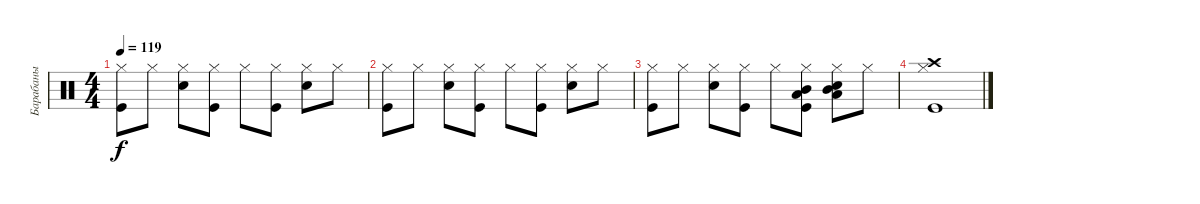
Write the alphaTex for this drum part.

\track ("Барабаны" "Барабаны") {instrument percussion}
\staff {score}
\articulation defaults
\ts (4 4)
\tempo 119
\clef neutral
\ks c
("Kick (hit)" "Hi-Hat (closed)").8{dy f} "Hi-Hat (closed)".8 ("Snare (hit) 2" "Hi-Hat (closed)").8 ("Kick (hit)" "Hi-Hat (closed)").8 "Hi-Hat (closed)".8 ("Kick (hit)" "Hi-Hat (closed)").8 ("Snare (hit) 2" "Hi-Hat (closed)").8 "Hi-Hat (closed)".8 |
("Kick (hit)" "Hi-Hat (closed)").8 "Hi-Hat (closed)".8 ("Snare (hit) 2" "Hi-Hat (closed)").8 ("Kick (hit)" "Hi-Hat (closed)").8 "Hi-Hat (closed)".8 ("Kick (hit)" "Hi-Hat (closed)").8 ("Snare (hit) 2" "Hi-Hat (closed)").8 "Hi-Hat (closed)".8 |
("Kick (hit)" "Hi-Hat (closed)").8 "Hi-Hat (closed)".8 ("Snare (hit) 2" "Hi-Hat (closed)").8 ("Kick (hit)" "Hi-Hat (closed)").8 "Hi-Hat (closed)".8 ("Kick (hit)" "Hi-Hat (closed)" "Low Floor Tom (hit)" "Mid Tom (hit)").8 ("Snare (hit) 2" "Hi-Hat (closed)" "Low Floor Tom (hit)" "Mid Tom (hit)").8 "Hi-Hat (closed)".8 |
("Kick (hit)" "Hi-Hat (closed)" "Crash high (hit)").1
